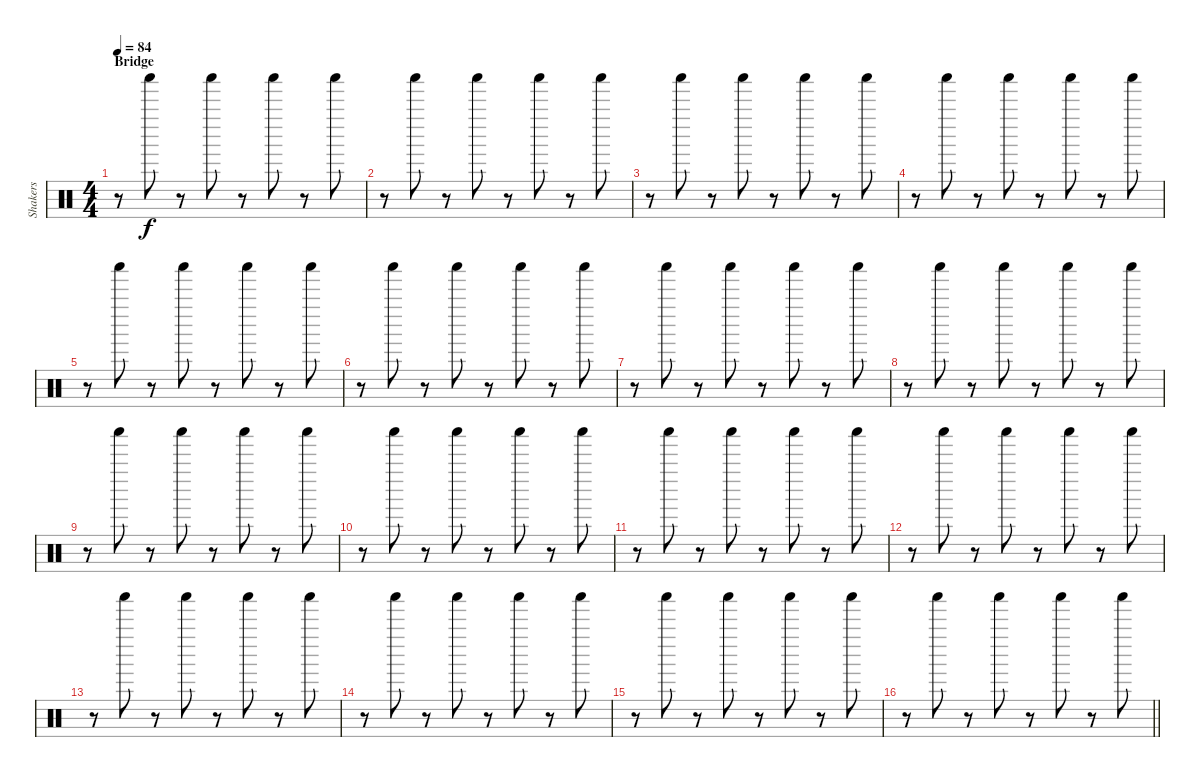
\track ("Shakers" "Shakers") {instrument percussion}
\staff {score}
\articulation defaults
\ts (4 4)
\section ("" "Bridge")
\tempo 84
\clef neutral
\ks c
r.8{dy f} "Shaker (hit)".8 r.8 "Shaker (hit)".8 r.8 "Shaker (hit)".8 r.8 "Shaker (hit)".8 |
r.8 "Shaker (hit)".8 r.8 "Shaker (hit)".8 r.8 "Shaker (hit)".8 r.8 "Shaker (hit)".8 |
r.8 "Shaker (hit)".8 r.8 "Shaker (hit)".8 r.8 "Shaker (hit)".8 r.8 "Shaker (hit)".8 |
r.8 "Shaker (hit)".8 r.8 "Shaker (hit)".8 r.8 "Shaker (hit)".8 r.8 "Shaker (hit)".8 |
r.8 "Shaker (hit)".8 r.8 "Shaker (hit)".8 r.8 "Shaker (hit)".8 r.8 "Shaker (hit)".8 |
r.8 "Shaker (hit)".8 r.8 "Shaker (hit)".8 r.8 "Shaker (hit)".8 r.8 "Shaker (hit)".8 |
r.8 "Shaker (hit)".8 r.8 "Shaker (hit)".8 r.8 "Shaker (hit)".8 r.8 "Shaker (hit)".8 |
r.8 "Shaker (hit)".8 r.8 "Shaker (hit)".8 r.8 "Shaker (hit)".8 r.8 "Shaker (hit)".8 |
r.8 "Shaker (hit)".8 r.8 "Shaker (hit)".8 r.8 "Shaker (hit)".8 r.8 "Shaker (hit)".8 |
r.8 "Shaker (hit)".8 r.8 "Shaker (hit)".8 r.8 "Shaker (hit)".8 r.8 "Shaker (hit)".8 |
r.8 "Shaker (hit)".8 r.8 "Shaker (hit)".8 r.8 "Shaker (hit)".8 r.8 "Shaker (hit)".8 |
r.8 "Shaker (hit)".8 r.8 "Shaker (hit)".8 r.8 "Shaker (hit)".8 r.8 "Shaker (hit)".8 |
r.8 "Shaker (hit)".8 r.8 "Shaker (hit)".8 r.8 "Shaker (hit)".8 r.8 "Shaker (hit)".8 |
r.8 "Shaker (hit)".8 r.8 "Shaker (hit)".8 r.8 "Shaker (hit)".8 r.8 "Shaker (hit)".8 |
r.8 "Shaker (hit)".8 r.8 "Shaker (hit)".8 r.8 "Shaker (hit)".8 r.8 "Shaker (hit)".8 |
\barLineRight lightlight
r.8 "Shaker (hit)".8 r.8 "Shaker (hit)".8 r.8 "Shaker (hit)".8 r.8 "Shaker (hit)".8
